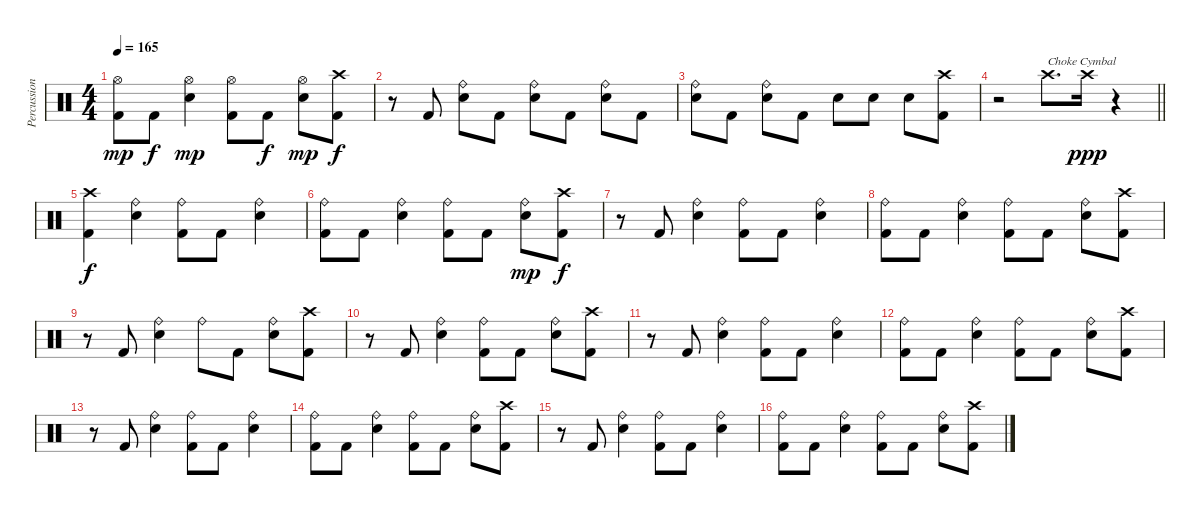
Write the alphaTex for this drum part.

\track ("Percussion" "Percussion") {instrument percussion}
\staff {score}
\articulation defaults
\ts (4 4)
\tempo 165
\clef neutral
\ks c
("Hi-Hat (open)" "Kick (hit) 2").8{dy mp} "Kick (hit) 2".8{dy f} ("Hi-Hat (open)" "Electric Snare (hit)").4{dy mp} ("Hi-Hat (open)" "Kick (hit) 2").8 "Kick (hit) 2".8{dy f} ("Hi-Hat (open)" "Electric Snare (hit)").8{dy mp} ("Crash high (hit)" "Kick (hit) 2").8{dy f} |
r.8 "Kick (hit) 2".8 ("Ride (bell)" "Electric Snare (hit)").8 "Kick (hit) 2".8 ("Ride (bell)" "Electric Snare (hit)").8 "Kick (hit) 2".8 ("Ride (bell)" "Electric Snare (hit)").8 "Kick (hit) 2".8 |
("Ride (bell)" "Electric Snare (hit)").8 "Kick (hit) 2".8 ("Ride (bell)" "Electric Snare (hit)").8 "Kick (hit) 2".8 "Electric Snare (hit)".8 "Electric Snare (hit)".8 "Electric Snare (hit)".8 ("Crash high (hit)" "Kick (hit) 2").8 |
\barLineRight lightlight
r.2 "Crash high (hit)".8{d txt "Choke Cymbal"} "Crash high (hit)".16{dy ppp} r.4 |
("Crash high (hit)" "Kick (hit) 2").4{dy f} ("Ride (bell)" "Electric Snare (hit)").4 ("Ride (bell)" "Kick (hit) 2").8 "Kick (hit) 2".8 ("Ride (bell)" "Electric Snare (hit)").4 |
("Ride (bell)" "Kick (hit) 2").8 "Kick (hit) 2".8 ("Ride (bell)" "Electric Snare (hit)").4 ("Ride (bell)" "Kick (hit) 2").8 "Kick (hit) 2".8 ("Ride (bell)" "Electric Snare (hit)").8{dy mp} ("Crash high (hit)" "Kick (hit) 2").8{dy f} |
r.8 "Kick (hit) 2".8 ("Ride (bell)" "Electric Snare (hit)").4 ("Ride (bell)" "Kick (hit) 2").8 "Kick (hit) 2".8 ("Ride (bell)" "Electric Snare (hit)").4 |
("Ride (bell)" "Kick (hit) 2").8 "Kick (hit) 2".8 ("Ride (bell)" "Electric Snare (hit)").4 ("Ride (bell)" "Kick (hit) 2").8 "Kick (hit) 2".8 ("Ride (bell)" "Electric Snare (hit)").8 ("Crash high (hit)" "Kick (hit) 2").8 |
r.8 "Kick (hit) 2".8 ("Ride (bell)" "Electric Snare (hit)").4 "Ride (bell)".8 "Kick (hit) 2".8 ("Ride (bell)" "Electric Snare (hit)").8 ("Crash high (hit)" "Kick (hit) 2").8 |
r.8 "Kick (hit) 2".8 ("Ride (bell)" "Electric Snare (hit)").4 ("Ride (bell)" "Kick (hit) 2").8 "Kick (hit) 2".8 ("Ride (bell)" "Electric Snare (hit)").8 ("Crash high (hit)" "Kick (hit) 2").8 |
r.8 "Kick (hit) 2".8 ("Ride (bell)" "Electric Snare (hit)").4 ("Ride (bell)" "Kick (hit) 2").8 "Kick (hit) 2".8 ("Ride (bell)" "Electric Snare (hit)").4 |
("Ride (bell)" "Kick (hit) 2").8 "Kick (hit) 2".8 ("Ride (bell)" "Electric Snare (hit)").4 ("Ride (bell)" "Kick (hit) 2").8 "Kick (hit) 2".8 ("Ride (bell)" "Electric Snare (hit)").8 ("Crash high (hit)" "Kick (hit) 2").8 |
r.8 "Kick (hit) 2".8 ("Ride (bell)" "Electric Snare (hit)").4 ("Ride (bell)" "Kick (hit) 2").8 "Kick (hit) 2".8 ("Ride (bell)" "Electric Snare (hit)").4 |
("Ride (bell)" "Kick (hit) 2").8 "Kick (hit) 2".8 ("Ride (bell)" "Electric Snare (hit)").4 ("Ride (bell)" "Kick (hit) 2").8 "Kick (hit) 2".8 ("Ride (bell)" "Electric Snare (hit)").8 ("Crash high (hit)" "Kick (hit) 2").8 |
r.8 "Kick (hit) 2".8 ("Ride (bell)" "Electric Snare (hit)").4 ("Ride (bell)" "Kick (hit) 2").8 "Kick (hit) 2".8 ("Ride (bell)" "Electric Snare (hit)").4 |
("Ride (bell)" "Kick (hit) 2").8 "Kick (hit) 2".8 ("Ride (bell)" "Electric Snare (hit)").4 ("Ride (bell)" "Kick (hit) 2").8 "Kick (hit) 2".8 ("Ride (bell)" "Electric Snare (hit)").8 ("Crash high (hit)" "Kick (hit) 2").8
